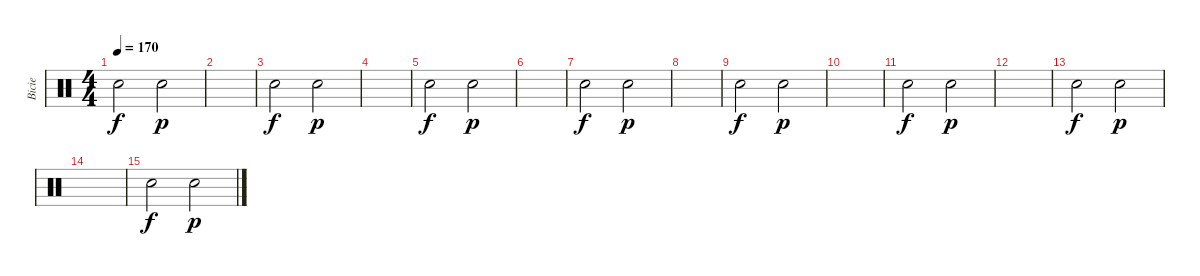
\track ("Bicie" "Bicie") {instrument percussion}
\staff {score}
\articulation defaults
\ts (4 4)
\tempo 170
\clef neutral
\ks c "Snare (hit) 2".2{dy f} "Snare (hit) 2".2{dy p}
|
|
"Snare (hit) 2".2{dy f} "Snare (hit) 2".2{dy p} |
|
"Snare (hit) 2".2{dy f} "Snare (hit) 2".2{dy p} |
|
"Snare (hit) 2".2{dy f} "Snare (hit) 2".2{dy p} |
|
"Snare (hit) 2".2{dy f} "Snare (hit) 2".2{dy p} |
|
"Snare (hit) 2".2{dy f} "Snare (hit) 2".2{dy p} |
|
"Snare (hit) 2".2{dy f} "Snare (hit) 2".2{dy p} |
|
"Snare (hit) 2".2{dy f} "Snare (hit) 2".2{dy p}
